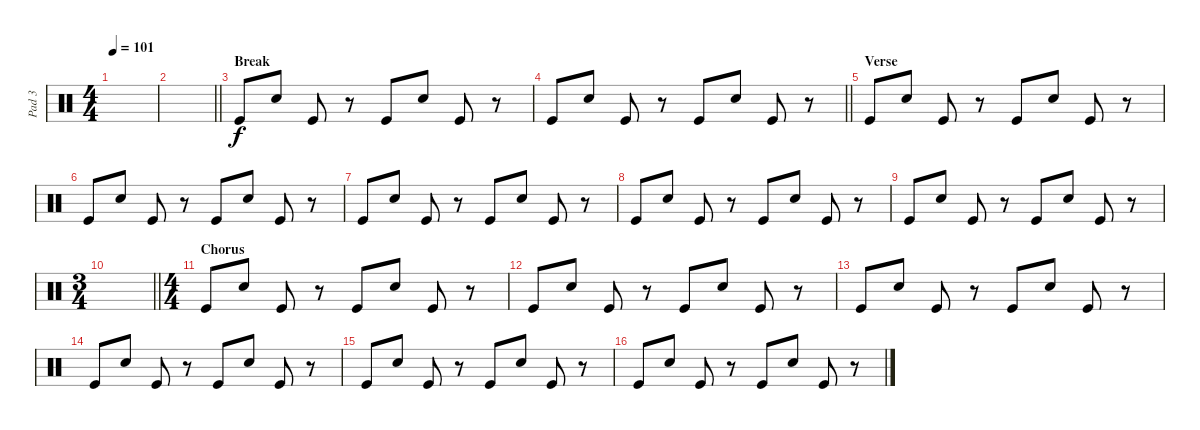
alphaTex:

\track ("Pad 3" "Pad 3") {instrument percussion}
\staff {score}
\articulation defaults
\ts (4 4)
\tempo 101
\clef neutral
\ks c
|
\barLineRight lightlight
|
\section ("" "Break")
"Kick (hit)".8 "Electric Snare (hit)".8 "Kick (hit)".8 r.8 "Kick (hit)".8 "Electric Snare (hit)".8 "Kick (hit)".8 r.8 |
\barLineRight lightlight "Kick (hit)".8 "Electric Snare (hit)".8 "Kick (hit)".8
r.8 "Kick (hit)".8 "Electric Snare (hit)".8 "Kick (hit)".8 r.8 |
\section ("" "Verse")
"Kick (hit)".8 "Electric Snare (hit)".8 "Kick (hit)".8 r.8 "Kick (hit)".8 "Electric Snare (hit)".8 "Kick (hit)".8 r.8 |
"Kick (hit)".8 "Electric Snare (hit)".8 "Kick (hit)".8 r.8 "Kick (hit)".8 "Electric Snare (hit)".8 "Kick (hit)".8 r.8 |
"Kick (hit)".8 "Electric Snare (hit)".8 "Kick (hit)".8 r.8 "Kick (hit)".8 "Electric Snare (hit)".8 "Kick (hit)".8 r.8 |
"Kick (hit)".8 "Electric Snare (hit)".8 "Kick (hit)".8 r.8 "Kick (hit)".8 "Electric Snare (hit)".8 "Kick (hit)".8 r.8 |
"Kick (hit)".8 "Electric Snare (hit)".8 "Kick (hit)".8 r.8 "Kick (hit)".8 "Electric Snare (hit)".8 "Kick (hit)".8 r.8 |
\ts (3 4)
\barLineRight lightlight
|
\ts (4 4)
\section ("" "Chorus")
"Kick (hit)".8 "Electric Snare (hit)".8 "Kick (hit)".8 r.8 "Kick (hit)".8 "Electric Snare (hit)".8 "Kick (hit)".8 r.8 |
"Kick (hit)".8 "Electric Snare (hit)".8 "Kick (hit)".8 r.8 "Kick (hit)".8 "Electric Snare (hit)".8 "Kick (hit)".8 r.8 |
"Kick (hit)".8 "Electric Snare (hit)".8 "Kick (hit)".8 r.8 "Kick (hit)".8 "Electric Snare (hit)".8 "Kick (hit)".8 r.8 |
"Kick (hit)".8 "Electric Snare (hit)".8 "Kick (hit)".8 r.8 "Kick (hit)".8 "Electric Snare (hit)".8 "Kick (hit)".8 r.8 |
"Kick (hit)".8 "Electric Snare (hit)".8 "Kick (hit)".8 r.8 "Kick (hit)".8 "Electric Snare (hit)".8 "Kick (hit)".8 r.8 |
"Kick (hit)".8 "Electric Snare (hit)".8 "Kick (hit)".8 r.8 "Kick (hit)".8 "Electric Snare (hit)".8 "Kick (hit)".8 r.8
